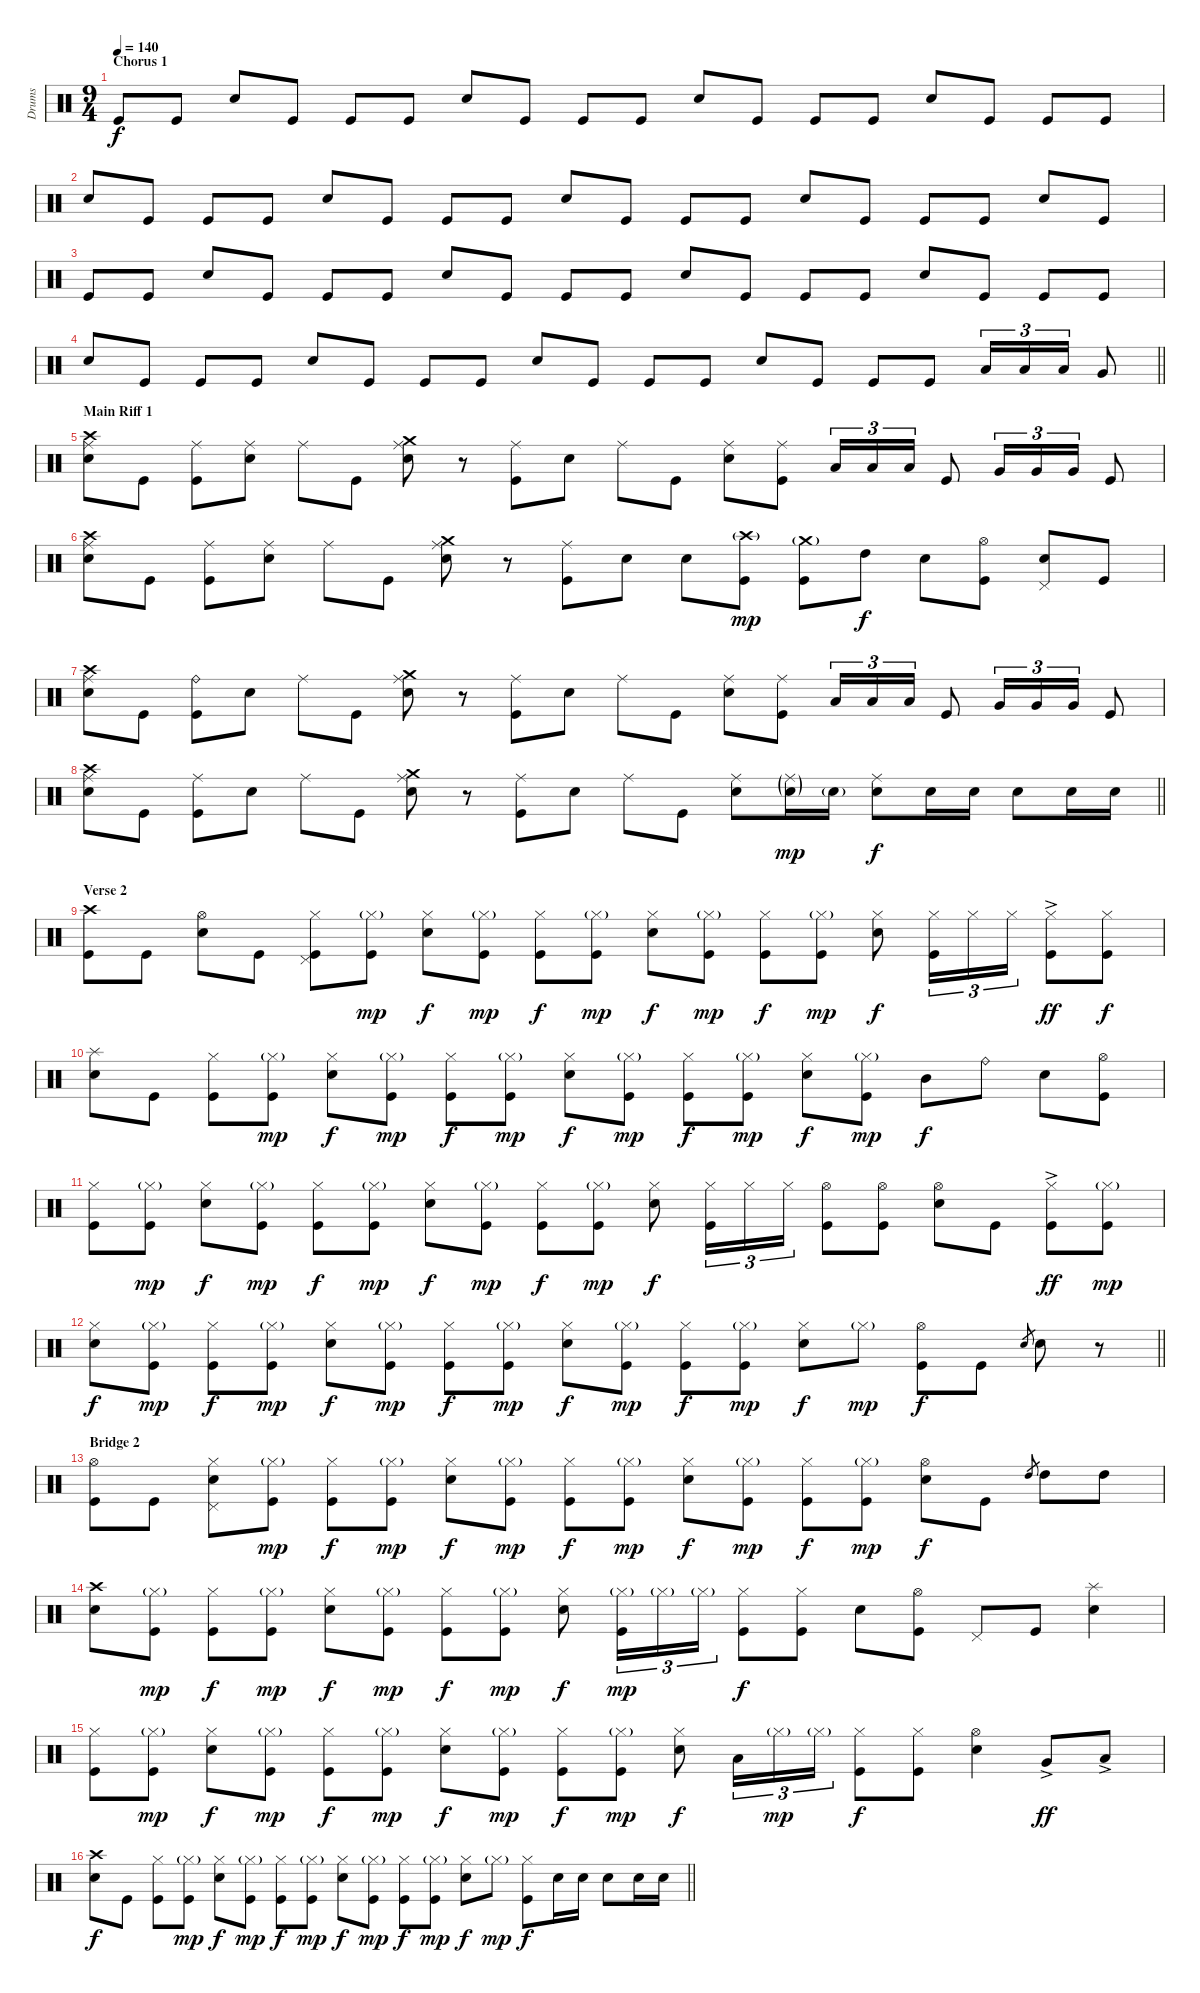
\track ("Drums" "Drums") {instrument percussion}
\staff {score}
\articulation defaults
\ts (9 4)
\section ("" "Chorus 1")
\tempo 140
\clef neutral
\ks c "Kick (hit)".8{dy f} "Kick (hit)".8 "Snare (hit) 2".8 "Kick (hit)".8 "Kick (hit)".8 "Kick (hit)".8 "Snare (hit) 2".8 "Kick (hit)".8 "Kick (hit)".8 "Kick (hit)".8 "Snare (hit) 2".8 "Kick (hit)".8 "Kick (hit)".8 "Kick (hit)".8 "Snare (hit) 2".8 "Kick (hit)".8 "Kick (hit)".8 "Kick (hit)".8
|
"Snare (hit) 2".8 "Kick (hit)".8 "Kick (hit)".8 "Kick (hit)".8 "Snare (hit) 2".8 "Kick (hit)".8 "Kick (hit)".8 "Kick (hit)".8 "Snare (hit) 2".8 "Kick (hit)".8 "Kick (hit)".8 "Kick (hit)".8 "Snare (hit) 2".8 "Kick (hit)".8 "Kick (hit)".8 "Kick (hit)".8 "Snare (hit) 2".8 "Kick (hit)".8 |
"Kick (hit)".8 "Kick (hit)".8 "Snare (hit) 2".8 "Kick (hit)".8 "Kick (hit)".8 "Kick (hit)".8 "Snare (hit) 2".8 "Kick (hit)".8 "Kick (hit)".8 "Kick (hit)".8 "Snare (hit) 2".8 "Kick (hit)".8 "Kick (hit)".8 "Kick (hit)".8 "Snare (hit) 2".8 "Kick (hit)".8 "Kick (hit)".8 "Kick (hit)".8 |
\barLineRight lightlight "Snare (hit) 2".8 "Kick (hit)".8 "Kick (hit)".8 "Kick (hit)".8 "Snare (hit) 2".8 "Kick (hit)".8 "Kick (hit)".8 "Kick (hit)".8 "Snare (hit) 2".8 "Kick (hit)".8 "Kick (hit)".8 "Kick (hit)".8 "Snare (hit) 2".8 "Kick (hit)".8 "Kick (hit)".8 "Kick (hit)".8 "Low Tom (hit)".16{tu (3 2)} "Low Tom (hit)".16{tu (3 2)} "Low Tom (hit)".16{tu (3 2)} "Very Low Tom (hit)".8
|
\section ("" "Main Riff 1")
("Ride (middle)" "Crash high (hit)" "Snare (hit) 2").8 "Kick (hit)".8 ("Ride (middle)" "Kick (hit)").8 ("Ride (middle)" "Snare (hit) 2").8 "Ride (middle)".8 "Kick (hit)".8 ("Ride (middle)" "Crash medium (hit)" "Snare (hit) 2").8 r.8 ("Ride (middle)" "Kick (hit)").8 "Snare (hit) 2".8 "Ride (middle)".8 "Kick (hit)".8 ("Ride (middle)" "Snare (hit) 2").8 ("Ride (middle)" "Kick (hit)").8 "Low Tom (hit)".16{tu (3 2)} "Low Tom (hit)".16{tu (3 2)} "Low Tom (hit)".16{tu (3 2)} "Kick (hit)".8 "Very Low Tom (hit)".16{tu (3 2)} "Very Low Tom (hit)".16{tu (3 2)} "Very Low Tom (hit)".16{tu (3 2)} "Kick (hit)".8 |
("Ride (middle)" "Crash high (hit)" "Snare (hit) 2").8 "Kick (hit)".8 ("Ride (middle)" "Kick (hit)").8 ("Ride (middle)" "Snare (hit) 2").8 "Ride (middle)".8 "Kick (hit)".8 ("Ride (middle)" "Crash medium (hit)" "Snare (hit) 2").8 r.8 ("Ride (middle)" "Kick (hit)").8 "Snare (hit) 2".8 "Snare (hit) 2".8 ("Crash high (hit)"{g} "Kick (hit)").8{dy mp} ("Crash medium (hit)"{g} "Kick (hit)").8 "High Tom (hit)".8{dy f} "Snare (hit) 2".8 ("Hi-Hat (open)" "Kick (hit)").8 ("Snare (hit) 2" "Pedal Hi-Hat (hit)").8 "Kick (hit)".8 |
("Ride (middle)" "Crash high (hit)" "Snare (hit) 2").8 "Kick (hit)".8 ("Ride (bell)" "Kick (hit)").8 "Snare (hit) 2".8 "Ride (middle)".8 "Kick (hit)".8 ("Ride (middle)" "Crash medium (hit)" "Snare (hit) 2").8 r.8 ("Ride (middle)" "Kick (hit)").8 "Snare (hit) 2".8 "Ride (middle)".8 "Kick (hit)".8 ("Ride (middle)" "Snare (hit) 2").8 ("Ride (middle)" "Kick (hit)").8 "Low Tom (hit)".16{tu (3 2)} "Low Tom (hit)".16{tu (3 2)} "Low Tom (hit)".16{tu (3 2)} "Kick (hit)".8 "Very Low Tom (hit)".16{tu (3 2)} "Very Low Tom (hit)".16{tu (3 2)} "Very Low Tom (hit)".16{tu (3 2)} "Kick (hit)".8 |
\barLineRight lightlight
("Ride (middle)" "Crash high (hit)" "Snare (hit) 2").8 "Kick (hit)".8 ("Ride (middle)" "Kick (hit)").8 "Snare (hit) 2".8 "Ride (middle)".8 "Kick (hit)".8 ("Ride (middle)" "Crash medium (hit)" "Snare (hit) 2").8 r.8 ("Ride (middle)" "Kick (hit)").8 "Snare (hit) 2".8 "Ride (middle)".8 "Kick (hit)".8 ("Ride (middle)" "Snare (hit) 2").8 ("Ride (middle)"{g} "Snare (hit) 2"{g}).16{dy mp} "Snare (hit) 2"{g}.16 ("Ride (middle)" "Snare (hit) 2").8{dy f} "Snare (hit) 2".16 "Snare (hit) 2".16 "Snare (hit) 2".8 "Snare (hit) 2".16 "Snare (hit) 2".16 |
\section ("" "Verse 2")
("Crash high (hit)" "Kick (hit)").8 "Kick (hit)".8 ("Hi-Hat (open)" "Snare (hit) 2").8 "Kick (hit)".8 ("Hi-Hat (closed)" "Pedal Hi-Hat (hit)" "Kick (hit)").8 ("Hi-Hat (closed)"{g} "Kick (hit)").8{dy mp} ("Hi-Hat (closed)" "Snare (hit) 2").8{dy f} ("Hi-Hat (closed)"{g} "Kick (hit)").8{dy mp} ("Hi-Hat (closed)" "Kick (hit)").8{dy f} ("Hi-Hat (closed)"{g} "Kick (hit)").8{dy mp} ("Hi-Hat (closed)" "Snare (hit) 2").8{dy f} ("Hi-Hat (closed)"{g} "Kick (hit)").8{dy mp} ("Hi-Hat (closed)" "Kick (hit)").8{dy f} ("Hi-Hat (closed)"{g} "Kick (hit)").8{dy mp} ("Hi-Hat (closed)" "Snare (hit) 2").8{dy f} ("Hi-Hat (closed)" "Kick (hit)").16{tu (3 2)} "Hi-Hat (closed)".16{tu (3 2)} "Hi-Hat (closed)".16{tu (3 2)} ("Hi-Hat (closed)"{ac} "Kick (hit)").8{dy ff} ("Hi-Hat (closed)" "Kick (hit)").8{dy f} |
("Splash (hit)" "Snare (hit) 2").8 "Kick (hit)".8 ("Hi-Hat (closed)" "Kick (hit)").8 ("Hi-Hat (closed)"{g} "Kick (hit)").8{dy mp} ("Hi-Hat (closed)" "Snare (hit) 2").8{dy f} ("Hi-Hat (closed)"{g} "Kick (hit)").8{dy mp} ("Hi-Hat (closed)" "Kick (hit)").8{dy f} ("Hi-Hat (closed)"{g} "Kick (hit)").8{dy mp} ("Hi-Hat (closed)" "Snare (hit) 2").8{dy f} ("Hi-Hat (closed)"{g} "Kick (hit)").8{dy mp} ("Hi-Hat (closed)" "Kick (hit)").8{dy f} ("Hi-Hat (closed)"{g} "Kick (hit)").8{dy mp} ("Hi-Hat (closed)" "Snare (hit) 2").8{dy f} ("Hi-Hat (closed)"{g} "Kick (hit)").8{dy mp} "Mid Tom (hit)".8{dy f} "Ride (bell)".8 "Snare (hit) 2".8 ("Hi-Hat (open)" "Kick (hit)").8 |
("Hi-Hat (closed)" "Kick (hit)").8 ("Hi-Hat (closed)"{g} "Kick (hit)").8{dy mp} ("Hi-Hat (closed)" "Snare (hit) 2").8{dy f} ("Hi-Hat (closed)"{g} "Kick (hit)").8{dy mp} ("Hi-Hat (closed)" "Kick (hit)").8{dy f} ("Hi-Hat (closed)"{g} "Kick (hit)").8{dy mp} ("Hi-Hat (closed)" "Snare (hit) 2").8{dy f} ("Hi-Hat (closed)"{g} "Kick (hit)").8{dy mp} ("Hi-Hat (closed)" "Kick (hit)").8{dy f} ("Hi-Hat (closed)"{g} "Kick (hit)").8{dy mp} ("Hi-Hat (closed)" "Snare (hit) 2").8{dy f} ("Hi-Hat (closed)" "Kick (hit)").16{tu (3 2)} "Hi-Hat (closed)".16{tu (3 2)} "Hi-Hat (closed)".16{tu (3 2)} ("Hi-Hat (open)" "Kick (hit)").8 ("Hi-Hat (open)" "Kick (hit)").8 ("Hi-Hat (open)" "Snare (hit) 2").8 "Kick (hit)".8 ("Hi-Hat (closed)"{ac} "Kick (hit)").8{dy ff} ("Hi-Hat (closed)"{g} "Kick (hit)").8{dy mp} |
\barLineRight lightlight
("Hi-Hat (closed)" "Snare (hit) 2").8{dy f} ("Hi-Hat (closed)"{g} "Kick (hit)").8{dy mp} ("Hi-Hat (closed)" "Kick (hit)").8{dy f} ("Hi-Hat (closed)"{g} "Kick (hit)").8{dy mp} ("Hi-Hat (closed)" "Snare (hit) 2").8{dy f} ("Hi-Hat (closed)"{g} "Kick (hit)").8{dy mp} ("Hi-Hat (closed)" "Kick (hit)").8{dy f} ("Hi-Hat (closed)"{g} "Kick (hit)").8{dy mp} ("Hi-Hat (closed)" "Snare (hit) 2").8{dy f} ("Hi-Hat (closed)"{g} "Kick (hit)").8{dy mp} ("Hi-Hat (closed)" "Kick (hit)").8{dy f} ("Hi-Hat (closed)"{g} "Kick (hit)").8{dy mp} ("Hi-Hat (closed)" "Snare (hit) 2").8{dy f} "Hi-Hat (closed)"{g}.8{dy mp} ("Hi-Hat (open)" "Kick (hit)").8{dy f} "Kick (hit)".8 "Snare (hit) 2".8{gr} "Snare (hit) 2".8 r.8 |
\section ("" "Bridge 2")
("Hi-Hat (open)" "Kick (hit)").8 "Kick (hit)".8 ("Hi-Hat (closed)" "Snare (hit) 2" "Pedal Hi-Hat (hit)").8 ("Hi-Hat (closed)"{g} "Kick (hit)").8{dy mp} ("Hi-Hat (closed)" "Kick (hit)").8{dy f} ("Hi-Hat (closed)"{g} "Kick (hit)").8{dy mp} ("Hi-Hat (closed)" "Snare (hit) 2").8{dy f} ("Hi-Hat (closed)"{g} "Kick (hit)").8{dy mp} ("Hi-Hat (closed)" "Kick (hit)").8{dy f} ("Hi-Hat (closed)"{g} "Kick (hit)").8{dy mp} ("Hi-Hat (closed)" "Snare (hit) 2").8{dy f} ("Hi-Hat (closed)"{g} "Kick (hit)").8{dy mp} ("Hi-Hat (closed)" "Kick (hit)").8{dy f} ("Hi-Hat (closed)"{g} "Kick (hit)").8{dy mp} ("Hi-Hat (open)" "Snare (hit) 2").8{dy f} "Kick (hit)".8 "High Tom (hit)".8{gr} "High Tom (hit)".8 "High Tom (hit)".8 |
("Crash high (hit)" "Snare (hit) 2").8 ("Hi-Hat (closed)"{g} "Kick (hit)").8{dy mp} ("Hi-Hat (closed)" "Kick (hit)").8{dy f} ("Hi-Hat (closed)"{g} "Kick (hit)").8{dy mp} ("Hi-Hat (closed)" "Snare (hit) 2").8{dy f} ("Hi-Hat (closed)"{g} "Kick (hit)").8{dy mp} ("Hi-Hat (closed)" "Kick (hit)").8{dy f} ("Hi-Hat (closed)"{g} "Kick (hit)").8{dy mp} ("Hi-Hat (closed)" "Snare (hit) 2").8{dy f} ("Hi-Hat (closed)"{g} "Kick (hit)").16{tu (3 2) dy mp} "Hi-Hat (closed)"{g}.16{tu (3 2)} "Hi-Hat (closed)"{g}.16{tu (3 2)} ("Hi-Hat (closed)" "Kick (hit)").8{dy f} ("Hi-Hat (closed)" "Kick (hit)").8 "Snare (hit) 2".8 ("Hi-Hat (open)" "Kick (hit)").8 "Pedal Hi-Hat (hit)".8 "Kick (hit)".8 ("Splash (hit)" "Snare (hit) 2").4 |
("Hi-Hat (closed)" "Kick (hit)").8 ("Hi-Hat (closed)"{g} "Kick (hit)").8{dy mp} ("Hi-Hat (closed)" "Snare (hit) 2").8{dy f} ("Hi-Hat (closed)"{g} "Kick (hit)").8{dy mp} ("Hi-Hat (closed)" "Kick (hit)").8{dy f} ("Hi-Hat (closed)"{g} "Kick (hit)").8{dy mp} ("Hi-Hat (closed)" "Snare (hit) 2").8{dy f} ("Hi-Hat (closed)"{g} "Kick (hit)").8{dy mp} ("Hi-Hat (closed)" "Kick (hit)").8{dy f} ("Hi-Hat (closed)"{g} "Kick (hit)").8{dy mp} ("Hi-Hat (closed)" "Snare (hit) 2").8{dy f} "Low Floor Tom (hit)".16{tu (3 2)} "Hi-Hat (closed)"{g}.16{tu (3 2) dy mp} "Hi-Hat (closed)"{g}.16{tu (3 2)} ("Hi-Hat (closed)" "Kick (hit)").8{dy f} ("Hi-Hat (closed)" "Kick (hit)").8 ("Hi-Hat (open)" "Snare (hit) 2").4 "Very Low Tom (hit)"{ac}.8{dy ff} "Low Floor Tom (hit)"{ac}.8 |
\barLineRight lightlight
("Crash high (hit)" "Snare (hit) 2").8{dy f} "Kick (hit)".8 ("Hi-Hat (closed)" "Kick (hit)").8 ("Hi-Hat (closed)"{g} "Kick (hit)").8{dy mp} ("Hi-Hat (closed)" "Snare (hit) 2").8{dy f} ("Hi-Hat (closed)"{g} "Kick (hit)").8{dy mp} ("Hi-Hat (closed)" "Kick (hit)").8{dy f} ("Hi-Hat (closed)"{g} "Kick (hit)").8{dy mp} ("Hi-Hat (closed)" "Snare (hit) 2").8{dy f} ("Hi-Hat (closed)"{g} "Kick (hit)").8{dy mp} ("Hi-Hat (closed)" "Kick (hit)").8{dy f} ("Hi-Hat (closed)"{g} "Kick (hit)").8{dy mp} ("Hi-Hat (closed)" "Snare (hit) 2").8{dy f} "Hi-Hat (closed)"{g}.8{dy mp} ("Hi-Hat (closed)" "Kick (hit)").8{dy f} "Snare (hit) 2".16 "Snare (hit) 2".16 "Snare (hit) 2".8 "Snare (hit) 2".16 "Snare (hit) 2".16
